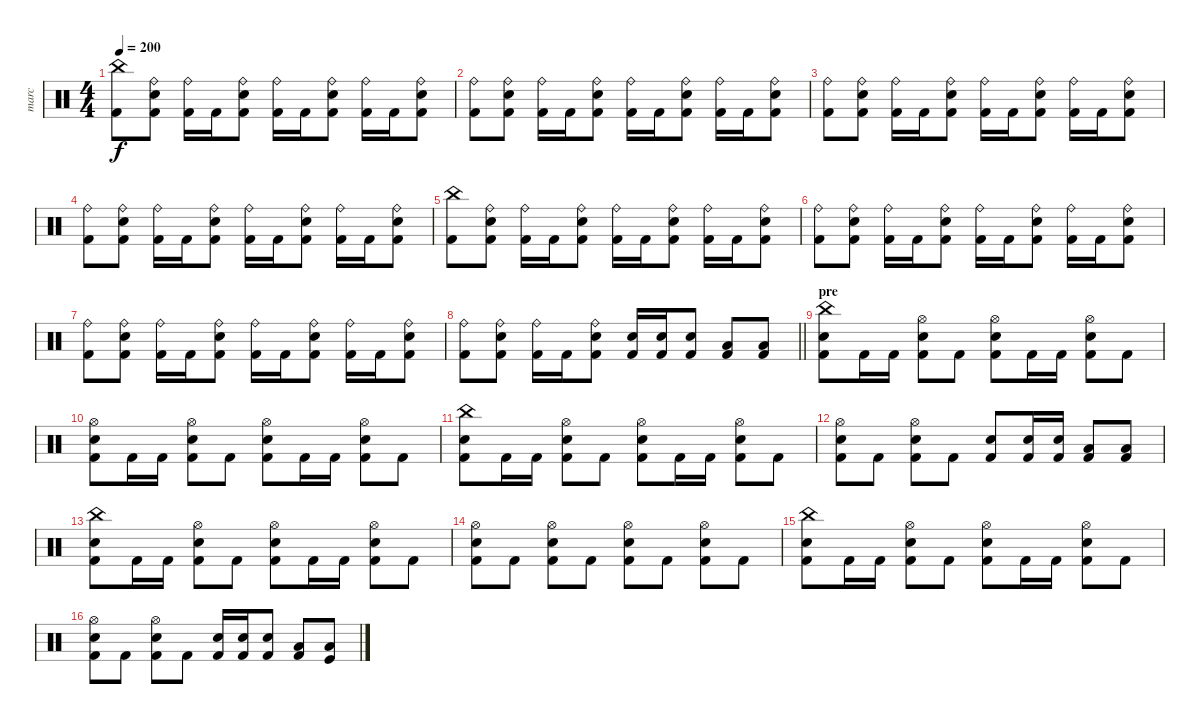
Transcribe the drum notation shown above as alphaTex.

\track ("marc" "marc") {instrument percussion}
\staff {score}
\articulation defaults
\ts (4 4)
\tempo 200
\clef neutral
\ks c
("China (hit)" "Kick (hit) 2").8{dy f} ("Ride (bell)" "Snare (hit) 2" "Kick (hit) 2").8 ("Ride (bell)" "Kick (hit) 2").16 "Kick (hit) 2".16 ("Ride (bell)" "Snare (hit) 2" "Kick (hit) 2").8 ("Ride (bell)" "Kick (hit) 2").16 "Kick (hit) 2".16 ("Ride (bell)" "Snare (hit) 2" "Kick (hit) 2").8 ("Ride (bell)" "Kick (hit) 2").16 "Kick (hit) 2".16 ("Ride (bell)" "Snare (hit) 2" "Kick (hit) 2").8 |
("Ride (bell)" "Kick (hit) 2").8 ("Ride (bell)" "Snare (hit) 2" "Kick (hit) 2").8 ("Ride (bell)" "Kick (hit) 2").16 "Kick (hit) 2".16 ("Ride (bell)" "Snare (hit) 2" "Kick (hit) 2").8 ("Ride (bell)" "Kick (hit) 2").16 "Kick (hit) 2".16 ("Ride (bell)" "Snare (hit) 2" "Kick (hit) 2").8 ("Ride (bell)" "Kick (hit) 2").16 "Kick (hit) 2".16 ("Ride (bell)" "Snare (hit) 2" "Kick (hit) 2").8 |
("Ride (bell)" "Kick (hit) 2").8 ("Ride (bell)" "Snare (hit) 2" "Kick (hit) 2").8 ("Ride (bell)" "Kick (hit) 2").16 "Kick (hit) 2".16 ("Ride (bell)" "Snare (hit) 2" "Kick (hit) 2").8 ("Ride (bell)" "Kick (hit) 2").16 "Kick (hit) 2".16 ("Ride (bell)" "Snare (hit) 2" "Kick (hit) 2").8 ("Ride (bell)" "Kick (hit) 2").16 "Kick (hit) 2".16 ("Ride (bell)" "Snare (hit) 2" "Kick (hit) 2").8 |
("Ride (bell)" "Kick (hit) 2").8 ("Ride (bell)" "Snare (hit) 2" "Kick (hit) 2").8 ("Ride (bell)" "Kick (hit) 2").16 "Kick (hit) 2".16 ("Ride (bell)" "Snare (hit) 2" "Kick (hit) 2").8 ("Ride (bell)" "Kick (hit) 2").16 "Kick (hit) 2".16 ("Ride (bell)" "Snare (hit) 2" "Kick (hit) 2").8 ("Ride (bell)" "Kick (hit) 2").16 "Kick (hit) 2".16 ("Ride (bell)" "Snare (hit) 2" "Kick (hit) 2").8 |
("China (hit)" "Kick (hit) 2").8 ("Ride (bell)" "Snare (hit) 2" "Kick (hit) 2").8 ("Ride (bell)" "Kick (hit) 2").16 "Kick (hit) 2".16 ("Ride (bell)" "Snare (hit) 2" "Kick (hit) 2").8 ("Ride (bell)" "Kick (hit) 2").16 "Kick (hit) 2".16 ("Ride (bell)" "Snare (hit) 2" "Kick (hit) 2").8 ("Ride (bell)" "Kick (hit) 2").16 "Kick (hit) 2".16 ("Ride (bell)" "Snare (hit) 2" "Kick (hit) 2").8 |
("Ride (bell)" "Kick (hit) 2").8 ("Ride (bell)" "Snare (hit) 2" "Kick (hit) 2").8 ("Ride (bell)" "Kick (hit) 2").16 "Kick (hit) 2".16 ("Ride (bell)" "Snare (hit) 2" "Kick (hit) 2").8 ("Ride (bell)" "Kick (hit) 2").16 "Kick (hit) 2".16 ("Ride (bell)" "Snare (hit) 2" "Kick (hit) 2").8 ("Ride (bell)" "Kick (hit) 2").16 "Kick (hit) 2".16 ("Ride (bell)" "Snare (hit) 2" "Kick (hit) 2").8 |
("Ride (bell)" "Kick (hit) 2").8 ("Ride (bell)" "Snare (hit) 2" "Kick (hit) 2").8 ("Ride (bell)" "Kick (hit) 2").16 "Kick (hit) 2".16 ("Ride (bell)" "Snare (hit) 2" "Kick (hit) 2").8 ("Ride (bell)" "Kick (hit) 2").16 "Kick (hit) 2".16 ("Ride (bell)" "Snare (hit) 2" "Kick (hit) 2").8 ("Ride (bell)" "Kick (hit) 2").16 "Kick (hit) 2".16 ("Ride (bell)" "Snare (hit) 2" "Kick (hit) 2").8 |
\barLineRight lightlight
("Ride (bell)" "Kick (hit) 2").8 ("Ride (bell)" "Snare (hit) 2" "Kick (hit) 2").8 ("Ride (bell)" "Kick (hit) 2").16 "Kick (hit) 2".16 ("Ride (bell)" "Snare (hit) 2" "Kick (hit) 2").8 ("Snare (hit) 2" "Kick (hit) 2").16 ("Snare (hit) 2" "Kick (hit) 2").16 ("Snare (hit) 2" "Kick (hit) 2").8 ("Low Tom (hit)" "Kick (hit) 2").8 ("Low Tom (hit)" "Kick (hit) 2").8 |
\section ("" "pre")
("China (hit)" "Snare (hit) 2" "Kick (hit) 2").8 "Kick (hit) 2".16 "Kick (hit) 2".16 ("Hi-Hat (open)" "Snare (hit) 2" "Kick (hit) 2").8 "Kick (hit) 2".8 ("Hi-Hat (open)" "Snare (hit) 2" "Kick (hit) 2").8 "Kick (hit) 2".16 "Kick (hit) 2".16 ("Hi-Hat (open)" "Snare (hit) 2" "Kick (hit) 2").8 "Kick (hit) 2".8 |
("Hi-Hat (open)" "Snare (hit) 2" "Kick (hit) 2").8 "Kick (hit) 2".16 "Kick (hit) 2".16 ("Hi-Hat (open)" "Snare (hit) 2" "Kick (hit) 2").8 "Kick (hit) 2".8 ("Hi-Hat (open)" "Snare (hit) 2" "Kick (hit) 2").8 "Kick (hit) 2".16 "Kick (hit) 2".16 ("Hi-Hat (open)" "Snare (hit) 2" "Kick (hit) 2").8 "Kick (hit) 2".8 |
("China (hit)" "Snare (hit) 2" "Kick (hit) 2").8 "Kick (hit) 2".16 "Kick (hit) 2".16 ("Hi-Hat (open)" "Snare (hit) 2" "Kick (hit) 2").8 "Kick (hit) 2".8 ("Hi-Hat (open)" "Snare (hit) 2" "Kick (hit) 2").8 "Kick (hit) 2".16 "Kick (hit) 2".16 ("Hi-Hat (open)" "Snare (hit) 2" "Kick (hit) 2").8 "Kick (hit) 2".8 |
("Hi-Hat (open)" "Snare (hit) 2" "Kick (hit) 2").8 "Kick (hit) 2".8 ("Hi-Hat (open)" "Snare (hit) 2" "Kick (hit) 2").8 "Kick (hit) 2".8 ("Snare (hit) 2" "Kick (hit) 2").8 ("Snare (hit) 2" "Kick (hit) 2").16 ("Snare (hit) 2" "Kick (hit) 2").16 ("Low Tom (hit)" "Kick (hit) 2").8 ("Low Tom (hit)" "Kick (hit) 2").8 |
("China (hit)" "Snare (hit) 2" "Kick (hit) 2").8 "Kick (hit) 2".16 "Kick (hit) 2".16 ("Hi-Hat (open)" "Snare (hit) 2" "Kick (hit) 2").8 "Kick (hit) 2".8 ("Hi-Hat (open)" "Snare (hit) 2" "Kick (hit) 2").8 "Kick (hit) 2".16 "Kick (hit) 2".16 ("Hi-Hat (open)" "Snare (hit) 2" "Kick (hit) 2").8 "Kick (hit) 2".8 |
("Hi-Hat (open)" "Snare (hit) 2" "Kick (hit) 2").8 "Kick (hit) 2".8 ("Hi-Hat (open)" "Snare (hit) 2" "Kick (hit) 2").8 "Kick (hit) 2".8 ("Hi-Hat (open)" "Snare (hit) 2" "Kick (hit) 2").8 "Kick (hit) 2".8 ("Hi-Hat (open)" "Snare (hit) 2" "Kick (hit) 2").8 "Kick (hit) 2".8 |
("China (hit)" "Snare (hit) 2" "Kick (hit) 2").8 "Kick (hit) 2".16 "Kick (hit) 2".16 ("Hi-Hat (open)" "Snare (hit) 2" "Kick (hit) 2").8 "Kick (hit) 2".8 ("Hi-Hat (open)" "Snare (hit) 2" "Kick (hit) 2").8 "Kick (hit) 2".16 "Kick (hit) 2".16 ("Hi-Hat (open)" "Snare (hit) 2" "Kick (hit) 2").8 "Kick (hit) 2".8 |
("Hi-Hat (open)" "Snare (hit) 2" "Kick (hit) 2").8 "Kick (hit) 2".8 ("Hi-Hat (open)" "Snare (hit) 2" "Kick (hit) 2").8 "Kick (hit) 2".8 ("Snare (hit) 2" "Kick (hit) 2").16 ("Snare (hit) 2" "Kick (hit) 2").16 ("Snare (hit) 2" "Kick (hit) 2").8 ("Low Tom (hit)" "Kick (hit) 2").8 ("Low Tom (hit)" "Kick (hit)").8
